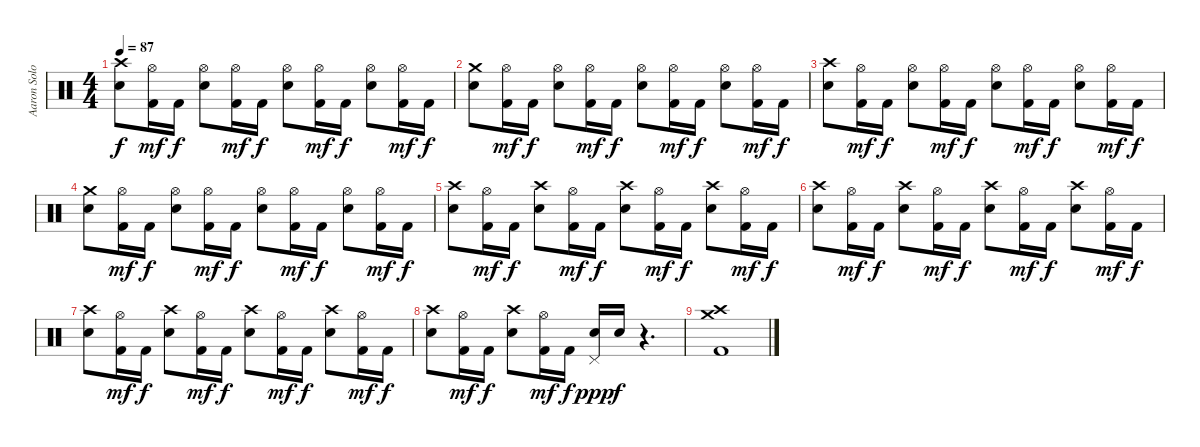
\track ("Aaron Solowoniuk" "Aaron Solo") {instrument percussion}
\staff {score}
\articulation defaults
\ts (4 4)
\tempo 87
\clef neutral
\ks c
("Crash high (hit)" "Snare (hit) 2").8{dy f} ("Hi-Hat (open)" "Kick (hit) 2").16{dy mf} "Kick (hit) 2".16{dy f} ("Hi-Hat (open)" "Snare (hit) 2").8 ("Hi-Hat (open)" "Kick (hit) 2").16{dy mf} "Kick (hit) 2".16{dy f} ("Hi-Hat (open)" "Snare (hit) 2").8 ("Hi-Hat (open)" "Kick (hit) 2").16{dy mf} "Kick (hit) 2".16{dy f} ("Hi-Hat (open)" "Snare (hit) 2").8 ("Hi-Hat (open)" "Kick (hit) 2").16{dy mf} "Kick (hit) 2".16{dy f} |
("Crash medium (hit)" "Snare (hit) 2").8 ("Hi-Hat (open)" "Kick (hit) 2").16{dy mf} "Kick (hit) 2".16{dy f} ("Hi-Hat (open)" "Snare (hit) 2").8 ("Hi-Hat (open)" "Kick (hit) 2").16{dy mf} "Kick (hit) 2".16{dy f} ("Hi-Hat (open)" "Snare (hit) 2").8 ("Hi-Hat (open)" "Kick (hit) 2").16{dy mf} "Kick (hit) 2".16{dy f} ("Hi-Hat (open)" "Snare (hit) 2").8 ("Hi-Hat (open)" "Kick (hit) 2").16{dy mf} "Kick (hit) 2".16{dy f} |
("Crash high (hit)" "Snare (hit) 2").8 ("Hi-Hat (open)" "Kick (hit) 2").16{dy mf} "Kick (hit) 2".16{dy f} ("Hi-Hat (open)" "Snare (hit) 2").8 ("Hi-Hat (open)" "Kick (hit) 2").16{dy mf} "Kick (hit) 2".16{dy f} ("Hi-Hat (open)" "Snare (hit) 2").8 ("Hi-Hat (open)" "Kick (hit) 2").16{dy mf} "Kick (hit) 2".16{dy f} ("Hi-Hat (open)" "Snare (hit) 2").8 ("Hi-Hat (open)" "Kick (hit) 2").16{dy mf} "Kick (hit) 2".16{dy f} |
("Crash medium (hit)" "Snare (hit) 2").8 ("Hi-Hat (open)" "Kick (hit) 2").16{dy mf} "Kick (hit) 2".16{dy f} ("Hi-Hat (open)" "Snare (hit) 2").8 ("Hi-Hat (open)" "Kick (hit) 2").16{dy mf} "Kick (hit) 2".16{dy f} ("Hi-Hat (open)" "Snare (hit) 2").8 ("Hi-Hat (open)" "Kick (hit) 2").16{dy mf} "Kick (hit) 2".16{dy f} ("Hi-Hat (open)" "Snare (hit) 2").8 ("Hi-Hat (open)" "Kick (hit) 2").16{dy mf} "Kick (hit) 2".16{dy f} |
("Crash high (hit)" "Snare (hit) 2").8 ("Hi-Hat (open)" "Kick (hit) 2").16{dy mf} "Kick (hit) 2".16{dy f} ("Crash high (hit)" "Snare (hit) 2").8 ("Hi-Hat (open)" "Kick (hit) 2").16{dy mf} "Kick (hit) 2".16{dy f} ("Crash high (hit)" "Snare (hit) 2").8 ("Hi-Hat (open)" "Kick (hit) 2").16{dy mf} "Kick (hit) 2".16{dy f} ("Crash high (hit)" "Snare (hit) 2").8 ("Hi-Hat (open)" "Kick (hit) 2").16{dy mf} "Kick (hit) 2".16{dy f} |
("Crash high (hit)" "Snare (hit) 2").8 ("Hi-Hat (open)" "Kick (hit) 2").16{dy mf} "Kick (hit) 2".16{dy f} ("Crash high (hit)" "Snare (hit) 2").8 ("Hi-Hat (open)" "Kick (hit) 2").16{dy mf} "Kick (hit) 2".16{dy f} ("Crash high (hit)" "Snare (hit) 2").8 ("Hi-Hat (open)" "Kick (hit) 2").16{dy mf} "Kick (hit) 2".16{dy f} ("Crash high (hit)" "Snare (hit) 2").8 ("Hi-Hat (open)" "Kick (hit) 2").16{dy mf} "Kick (hit) 2".16{dy f} |
("Crash high (hit)" "Snare (hit) 2").8 ("Hi-Hat (open)" "Kick (hit) 2").16{dy mf} "Kick (hit) 2".16{dy f} ("Crash high (hit)" "Snare (hit) 2").8 ("Hi-Hat (open)" "Kick (hit) 2").16{dy mf} "Kick (hit) 2".16{dy f} ("Crash high (hit)" "Snare (hit) 2").8 ("Hi-Hat (open)" "Kick (hit) 2").16{dy mf} "Kick (hit) 2".16{dy f} ("Crash high (hit)" "Snare (hit) 2").8 ("Hi-Hat (open)" "Kick (hit) 2").16{dy mf} "Kick (hit) 2".16{dy f} |
("Crash high (hit)" "Snare (hit) 2").8 ("Hi-Hat (open)" "Kick (hit) 2").16{dy mf} "Kick (hit) 2".16{dy f} ("Crash high (hit)" "Snare (hit) 2").8 ("Hi-Hat (open)" "Kick (hit) 2").16{dy mf} "Kick (hit) 2".16{dy f} ("Pedal Hi-Hat (hit)" "Snare (hit) 2").16{dy ppp} "Snare (hit) 2".16{dy f} r.4{d} |
("Crash medium (hit)" "Crash high (hit)" "Kick (hit) 2").1
